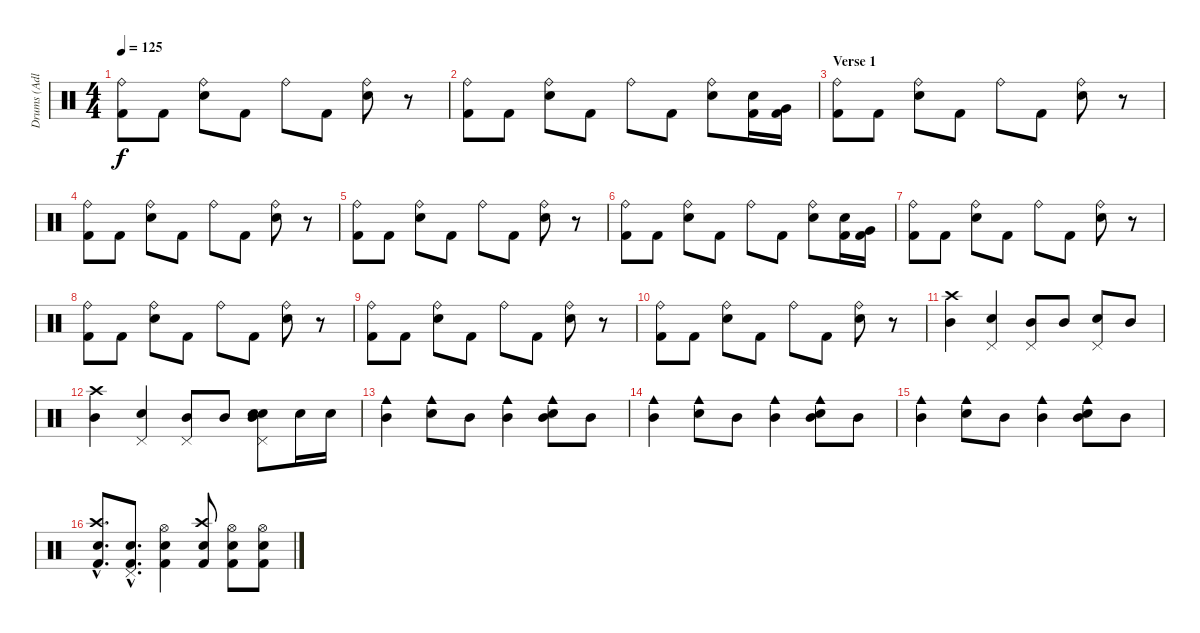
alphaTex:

\track ("Drums (Adler)" "Drums (Adl") {instrument percussion}
\staff {score}
\articulation defaults
\ts (4 4)
\tempo 125
\clef neutral
\ks c
("Kick (hit) 2" "Ride (bell)").8{dy f} "Kick (hit) 2".8 ("Electric Snare (hit)" "Ride (bell)").8 "Kick (hit) 2".8 "Ride (bell)".8 "Kick (hit) 2".8 ("Electric Snare (hit)" "Ride (bell)").8 r.8 |
("Kick (hit) 2" "Ride (bell)").8 "Kick (hit) 2".8 ("Electric Snare (hit)" "Ride (bell)").8 "Kick (hit) 2".8 "Ride (bell)".8 "Kick (hit) 2".8 ("Electric Snare (hit)" "Ride (bell)").8 ("Kick (hit) 2" "Electric Snare (hit)").16 ("Kick (hit) 2" "Very Low Tom (hit)").16 |
\section ("" "Verse 1 ")
("Kick (hit) 2" "Ride (bell)").8 "Kick (hit) 2".8 ("Electric Snare (hit)" "Ride (bell)").8 "Kick (hit) 2".8 "Ride (bell)".8 "Kick (hit) 2".8 ("Electric Snare (hit)" "Ride (bell)").8 r.8 |
("Kick (hit) 2" "Ride (bell)").8 "Kick (hit) 2".8 ("Electric Snare (hit)" "Ride (bell)").8 "Kick (hit) 2".8 "Ride (bell)".8 "Kick (hit) 2".8 ("Electric Snare (hit)" "Ride (bell)").8 r.8 |
("Kick (hit) 2" "Ride (bell)").8 "Kick (hit) 2".8 ("Electric Snare (hit)" "Ride (bell)").8 "Kick (hit) 2".8 "Ride (bell)".8 "Kick (hit) 2".8 ("Electric Snare (hit)" "Ride (bell)").8 r.8 |
("Kick (hit) 2" "Ride (bell)").8 "Kick (hit) 2".8 ("Electric Snare (hit)" "Ride (bell)").8 "Kick (hit) 2".8 "Ride (bell)".8 "Kick (hit) 2".8 ("Electric Snare (hit)" "Ride (bell)").8 ("Kick (hit) 2" "Electric Snare (hit)").16 ("Kick (hit) 2" "Very Low Tom (hit)").16 |
("Kick (hit) 2" "Ride (bell)").8 "Kick (hit) 2".8 ("Electric Snare (hit)" "Ride (bell)").8 "Kick (hit) 2".8 "Ride (bell)".8 "Kick (hit) 2".8 ("Electric Snare (hit)" "Ride (bell)").8 r.8 |
("Kick (hit) 2" "Ride (bell)").8 "Kick (hit) 2".8 ("Electric Snare (hit)" "Ride (bell)").8 "Kick (hit) 2".8 "Ride (bell)".8 "Kick (hit) 2".8 ("Electric Snare (hit)" "Ride (bell)").8 r.8 |
("Kick (hit) 2" "Ride (bell)").8 "Kick (hit) 2".8 ("Electric Snare (hit)" "Ride (bell)").8 "Kick (hit) 2".8 "Ride (bell)".8 "Kick (hit) 2".8 ("Electric Snare (hit)" "Ride (bell)").8 r.8 |
("Kick (hit) 2" "Ride (bell)").8 "Kick (hit) 2".8 ("Electric Snare (hit)" "Ride (bell)").8 "Kick (hit) 2".8 "Ride (bell)".8 "Kick (hit) 2".8 ("Electric Snare (hit)" "Ride (bell)").8 r.8 |
("Crash high (hit)" "Mid Tom (hit)").4 ("Pedal Hi-Hat (hit)" "Snare (hit) 2").4 ("Pedal Hi-Hat (hit)" "Mid Tom (hit)").8 "Mid Tom (hit)".8 ("Pedal Hi-Hat (hit)" "Snare (hit) 2").8 "Mid Tom (hit)".8 |
("Crash high (hit)" "Mid Tom (hit)").4 ("Pedal Hi-Hat (hit)" "Snare (hit) 2").4 ("Pedal Hi-Hat (hit)" "Mid Tom (hit)").8 "Mid Tom (hit)".8 ("Pedal Hi-Hat (hit)" "Snare (hit) 2" "Electric Snare (hit)" "Mid Tom (hit)").8 "Electric Snare (hit)".16 "Electric Snare (hit)".16 |
("Mid Tom (hit)" "Cowbell medium (hit)").4 ("Electric Snare (hit)" "Cowbell medium (hit)").8 "Mid Tom (hit)".8 ("Mid Tom (hit)" "Cowbell medium (hit)").4 ("Electric Snare (hit)" "Mid Tom (hit)" "Cowbell medium (hit)").8 "Mid Tom (hit)".8 |
("Mid Tom (hit)" "Cowbell medium (hit)").4 ("Electric Snare (hit)" "Cowbell medium (hit)").8 "Mid Tom (hit)".8 ("Mid Tom (hit)" "Cowbell medium (hit)").4 ("Electric Snare (hit)" "Mid Tom (hit)" "Cowbell medium (hit)").8 "Mid Tom (hit)".8 |
("Mid Tom (hit)" "Cowbell medium (hit)").4 ("Electric Snare (hit)" "Cowbell medium (hit)").8 "Mid Tom (hit)".8 ("Mid Tom (hit)" "Cowbell medium (hit)").4 ("Electric Snare (hit)" "Mid Tom (hit)" "Cowbell medium (hit)").8 "Mid Tom (hit)".8 |
("Kick (hit) 2"{hac} "Snare (hit) 2"{hac} "Crash high (hit)"{hac}).8{d} ("Kick (hit) 2"{hac} "Snare (hit) 2"{hac} "Pedal Hi-Hat (hit)"{hac}).8{d} ("Kick (hit) 2" "Snare (hit) 2" "Hi-Hat (open)").4 ("Kick (hit) 2" "Snare (hit) 2" "Crash high (hit)").8 ("Kick (hit) 2" "Snare (hit) 2" "Hi-Hat (open)").8 ("Kick (hit) 2" "Snare (hit) 2" "Hi-Hat (open)").8
